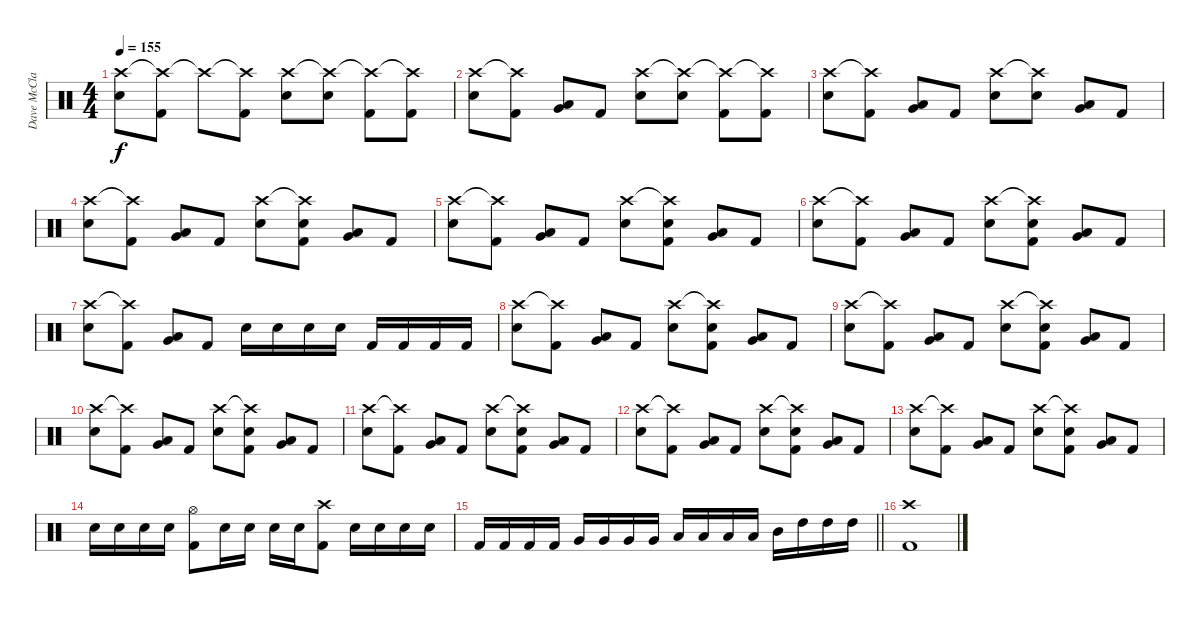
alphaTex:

\track ("Dave McClain (Drums)" "Dave McCla") {instrument percussion}
\staff {score}
\articulation defaults
\ts (4 4)
\tempo 155
\clef neutral
\ks c
("Crash high (hit)" "Electric Snare (hit)").8{dy f} ("Crash high (hit)"{t} "Kick (hit) 2").8 "Crash high (hit)"{t}.8 ("Crash high (hit)"{t} "Kick (hit) 2").8 ("Crash high (hit)" "Electric Snare (hit)").8 ("Crash high (hit)"{t} "Electric Snare (hit)").8 ("Crash high (hit)"{t} "Kick (hit) 2").8 ("Crash high (hit)"{t} "Kick (hit) 2").8 |
("Crash high (hit)" "Electric Snare (hit)").8 ("Crash high (hit)"{t} "Kick (hit) 2").8 ("Very Low Tom (hit)" "Low Tom (hit)").8 "Kick (hit) 2".8 ("Crash high (hit)" "Electric Snare (hit)").8 ("Crash high (hit)"{t} "Electric Snare (hit)").8 ("Crash high (hit)"{t} "Kick (hit) 2").8 ("Crash high (hit)"{t} "Kick (hit) 2").8 |
("Crash high (hit)" "Electric Snare (hit)").8 ("Crash high (hit)"{t} "Kick (hit) 2").8 ("Very Low Tom (hit)" "Low Tom (hit)").8 "Kick (hit) 2".8 ("Crash high (hit)" "Electric Snare (hit)").8 ("Crash high (hit)"{t} "Electric Snare (hit)").8 ("Very Low Tom (hit)" "Low Tom (hit)").8 "Kick (hit) 2".8 |
("Crash high (hit)" "Electric Snare (hit)").8 ("Crash high (hit)"{t} "Kick (hit) 2").8 ("Very Low Tom (hit)" "Low Tom (hit)").8 "Kick (hit) 2".8 ("Crash high (hit)" "Electric Snare (hit)").8 ("Crash high (hit)"{t} "Electric Snare (hit)" "Kick (hit) 2").8 ("Very Low Tom (hit)" "Low Tom (hit)").8 "Kick (hit) 2".8 |
("Crash high (hit)" "Electric Snare (hit)").8 ("Crash high (hit)"{t} "Kick (hit) 2").8 ("Very Low Tom (hit)" "Low Tom (hit)").8 "Kick (hit) 2".8 ("Crash high (hit)" "Electric Snare (hit)").8 ("Crash high (hit)"{t} "Electric Snare (hit)" "Kick (hit) 2").8 ("Very Low Tom (hit)" "Low Tom (hit)").8 "Kick (hit) 2".8 |
("Crash high (hit)" "Electric Snare (hit)").8 ("Crash high (hit)"{t} "Kick (hit) 2").8 ("Very Low Tom (hit)" "Low Tom (hit)").8 "Kick (hit) 2".8 ("Crash high (hit)" "Electric Snare (hit)").8 ("Crash high (hit)"{t} "Electric Snare (hit)" "Kick (hit) 2").8 ("Very Low Tom (hit)" "Low Tom (hit)").8 "Kick (hit) 2".8 |
("Crash high (hit)" "Electric Snare (hit)").8 ("Crash high (hit)"{t} "Kick (hit) 2").8 ("Very Low Tom (hit)" "Low Tom (hit)").8 "Kick (hit) 2".8 "Electric Snare (hit)".16 "Electric Snare (hit)".16 "Electric Snare (hit)".16 "Electric Snare (hit)".16 "Kick (hit) 2".16 "Kick (hit) 2".16 "Kick (hit) 2".16 "Kick (hit) 2".16 |
("Crash high (hit)" "Electric Snare (hit)").8 ("Crash high (hit)"{t} "Kick (hit) 2").8 ("Very Low Tom (hit)" "Low Tom (hit)").8 "Kick (hit) 2".8 ("Crash high (hit)" "Electric Snare (hit)").8 ("Crash high (hit)"{t} "Electric Snare (hit)" "Kick (hit) 2").8 ("Very Low Tom (hit)" "Low Tom (hit)").8 "Kick (hit) 2".8 |
("Crash high (hit)" "Electric Snare (hit)").8 ("Crash high (hit)"{t} "Kick (hit) 2").8 ("Very Low Tom (hit)" "Low Tom (hit)").8 "Kick (hit) 2".8 ("Crash high (hit)" "Electric Snare (hit)").8 ("Crash high (hit)"{t} "Electric Snare (hit)" "Kick (hit) 2").8 ("Very Low Tom (hit)" "Low Tom (hit)").8 "Kick (hit) 2".8 |
("Crash high (hit)" "Electric Snare (hit)").8 ("Crash high (hit)"{t} "Kick (hit) 2").8 ("Very Low Tom (hit)" "Low Tom (hit)").8 "Kick (hit) 2".8 ("Crash high (hit)" "Electric Snare (hit)").8 ("Crash high (hit)"{t} "Electric Snare (hit)" "Kick (hit) 2").8 ("Very Low Tom (hit)" "Low Tom (hit)").8 "Kick (hit) 2".8 |
("Crash high (hit)" "Electric Snare (hit)").8 ("Crash high (hit)"{t} "Kick (hit) 2").8 ("Very Low Tom (hit)" "Low Tom (hit)").8 "Kick (hit) 2".8 ("Crash high (hit)" "Electric Snare (hit)").8 ("Crash high (hit)"{t} "Electric Snare (hit)" "Kick (hit) 2").8 ("Very Low Tom (hit)" "Low Tom (hit)").8 "Kick (hit) 2".8 |
("Crash high (hit)" "Electric Snare (hit)").8 ("Crash high (hit)"{t} "Kick (hit) 2").8 ("Very Low Tom (hit)" "Low Tom (hit)").8 "Kick (hit) 2".8 ("Crash high (hit)" "Electric Snare (hit)").8 ("Crash high (hit)"{t} "Electric Snare (hit)" "Kick (hit) 2").8 ("Very Low Tom (hit)" "Low Tom (hit)").8 "Kick (hit) 2".8 |
("Crash high (hit)" "Electric Snare (hit)").8 ("Crash high (hit)"{t} "Kick (hit) 2").8 ("Very Low Tom (hit)" "Low Tom (hit)").8 "Kick (hit) 2".8 ("Crash high (hit)" "Electric Snare (hit)").8 ("Crash high (hit)"{t} "Electric Snare (hit)" "Kick (hit) 2").8 ("Very Low Tom (hit)" "Low Tom (hit)").8 "Kick (hit) 2".8 |
"Electric Snare (hit)".16 "Electric Snare (hit)".16 "Electric Snare (hit)".16 "Electric Snare (hit)".16 ("Hi-Hat (open)" "Kick (hit) 2").8 "Electric Snare (hit)".16 "Electric Snare (hit)".16 "Electric Snare (hit)".16 "Electric Snare (hit)".16 ("Crash high (hit)" "Kick (hit) 2").8 "Electric Snare (hit)".16 "Electric Snare (hit)".16 "Electric Snare (hit)".16 "Electric Snare (hit)".16 |
\barLineRight lightlight "Kick (hit) 2".16 "Kick (hit) 2".16 "Kick (hit) 2".16 "Kick (hit) 2".16 "Very Low Tom (hit)".16 "Very Low Tom (hit)".16 "Very Low Tom (hit)".16 "Very Low Tom (hit)".16 "Low Tom (hit)".16 "Low Tom (hit)".16 "Low Tom (hit)".16 "Low Tom (hit)".16 "Mid Tom (hit)".16 "High Tom (hit)".16 "High Tom (hit)".16 "High Tom (hit)".16
|
\section ("" "")
("Crash high (hit)" "Kick (hit) 2").1
